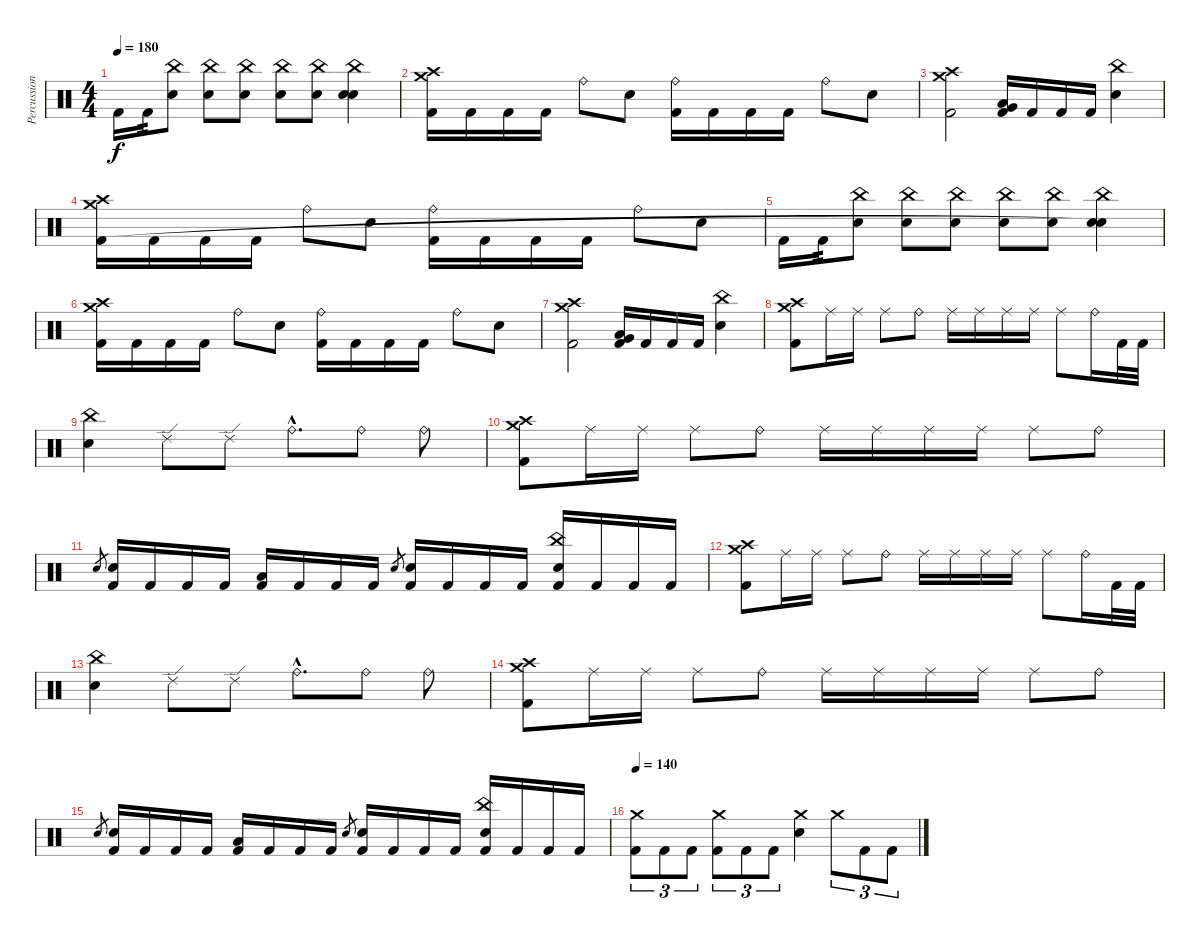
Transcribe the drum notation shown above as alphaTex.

\track ("Percussion" "Percussion") {instrument percussion}
\staff {score}
\articulation defaults
\ts (4 4)
\tempo 180
\clef neutral
\ks c "Kick (hit) 2".16{dy f} "Kick (hit) 2".16{tp 2}
("China (hit)" "Electric Snare (hit)").8 ("China (hit)" "Electric Snare (hit)").8 ("China (hit)" "Electric Snare (hit)").8 ("China (hit)" "Electric Snare (hit)").8 ("China (hit)" "Electric Snare (hit)").8 ("China (hit)" "Electric Snare (hit)" "Snare (hit)"{t}).4 |
("Crash high (hit)" "Crash medium (hit)" "Kick (hit) 2").16 "Kick (hit) 2".16 "Kick (hit) 2".16 "Kick (hit) 2".16 "Ride (bell)".8 "Electric Snare (hit)".8 ("Ride (bell)" "Kick (hit) 2").16 "Kick (hit) 2".16 "Kick (hit) 2".16 "Kick (hit) 2".16 "Ride (bell)".8 "Electric Snare (hit)".8 |
("Crash medium (hit)" "Crash high (hit)" "Kick (hit) 2").2 ("Low Floor Tom (hit)" "Very Low Tom (hit)" "Kick (hit) 2").16 "Kick (hit) 2".16 "Kick (hit) 2".16 "Kick (hit) 2".16 ("China (hit)" "Electric Snare (hit)").4 |
("Crash high (hit)" "Crash medium (hit)" "Kick (hit) 2").16 "Kick (hit) 2".16 "Kick (hit) 2".16 "Kick (hit) 2".16 "Ride (bell)".8 "Electric Snare (hit)".8 ("Ride (bell)" "Kick (hit) 2").16 "Kick (hit) 2".16 "Kick (hit) 2".16 "Kick (hit) 2".16 "Ride (bell)".8 "Electric Snare (hit)".8 |
"Kick (hit) 2".16 "Kick (hit) 2".16{tp 2} ("China (hit)" "Electric Snare (hit)").8 ("China (hit)" "Electric Snare (hit)").8 ("China (hit)" "Electric Snare (hit)").8 ("China (hit)" "Electric Snare (hit)").8 ("China (hit)" "Electric Snare (hit)").8 ("China (hit)" "Electric Snare (hit)" "Snare (hit)"{t}).4 |
("Crash high (hit)" "Crash medium (hit)" "Kick (hit) 2").16 "Kick (hit) 2".16 "Kick (hit) 2".16 "Kick (hit) 2".16 "Ride (bell)".8 "Electric Snare (hit)".8 ("Ride (bell)" "Kick (hit) 2").16 "Kick (hit) 2".16 "Kick (hit) 2".16 "Kick (hit) 2".16 "Ride (bell)".8 "Electric Snare (hit)".8 |
("Crash medium (hit)" "Crash high (hit)" "Kick (hit) 2").2 ("Low Floor Tom (hit)" "Very Low Tom (hit)" "Kick (hit) 2").16 "Kick (hit) 2".16 "Kick (hit) 2".16 "Kick (hit) 2".16 ("China (hit)" "Electric Snare (hit)").4 |
("Crash medium (hit)" "Crash high (hit)" "Kick (hit) 2").8 "Ride (middle)".16 "Ride (middle)".16 "Ride (middle)".8 "Ride (bell)".8 "Ride (middle)".16 "Ride (middle)".16 "Ride (middle)".16 "Ride (middle)".16 "Ride (middle)".8 "Ride (bell)".16 "Kick (hit) 2".32 "Kick (hit) 2".32 |
("China (hit)" "Electric Snare (hit)").4 "Ride (edge) 2".8 "Ride (edge) 2".8 "Ride (bell)"{hac}.8{d} "Ride (bell)".8 "Ride (bell)".8 |
("Crash medium (hit)" "Crash high (hit)" "Kick (hit) 2").8 "Ride (middle)".16 "Ride (middle)".16 "Ride (middle)".8 "Ride (bell)".8 "Ride (middle)".16 "Ride (middle)".16 "Ride (middle)".16 "Ride (middle)".16 "Ride (middle)".8 "Ride (bell)".8 |
"Electric Snare (hit)".8{gr} ("Electric Snare (hit)" "Kick (hit) 2").16 "Kick (hit) 2".16 "Kick (hit) 2".16 "Kick (hit) 2".16 ("Low Tom (hit)" "Kick (hit) 2").16 "Kick (hit) 2".16 "Kick (hit) 2".16 "Kick (hit) 2".16 "Electric Snare (hit)".8{gr} ("Electric Snare (hit)" "Kick (hit) 2").16 "Kick (hit) 2".16 "Kick (hit) 2".16 "Kick (hit) 2".16 ("China (hit)" "Electric Snare (hit)" "Kick (hit) 2").16 "Kick (hit) 2".16 "Kick (hit) 2".16 "Kick (hit) 2".16 |
("Crash medium (hit)" "Crash high (hit)" "Kick (hit) 2").8 "Ride (middle)".16 "Ride (middle)".16 "Ride (middle)".8 "Ride (bell)".8 "Ride (middle)".16 "Ride (middle)".16 "Ride (middle)".16 "Ride (middle)".16 "Ride (middle)".8 "Ride (bell)".16 "Kick (hit) 2".32 "Kick (hit) 2".32 |
("China (hit)" "Electric Snare (hit)").4 "Ride (edge) 2".8 "Ride (edge) 2".8 "Ride (bell)"{hac}.8{d} "Ride (bell)".8 "Ride (bell)".8 |
("Crash medium (hit)" "Crash high (hit)" "Kick (hit) 2").8 "Ride (middle)".16 "Ride (middle)".16 "Ride (middle)".8 "Ride (bell)".8 "Ride (middle)".16 "Ride (middle)".16 "Ride (middle)".16 "Ride (middle)".16 "Ride (middle)".8 "Ride (bell)".8 |
"Electric Snare (hit)".8{gr} ("Electric Snare (hit)" "Kick (hit) 2").16 "Kick (hit) 2".16 "Kick (hit) 2".16 "Kick (hit) 2".16 ("Low Tom (hit)" "Kick (hit) 2").16 "Kick (hit) 2".16 "Kick (hit) 2".16 "Kick (hit) 2".16 "Electric Snare (hit)".8{gr} ("Electric Snare (hit)" "Kick (hit) 2").16 "Kick (hit) 2".16 "Kick (hit) 2".16 "Kick (hit) 2".16 ("China (hit)" "Electric Snare (hit)" "Kick (hit) 2").16 "Kick (hit) 2".16 "Kick (hit) 2".16 "Kick (hit) 2".16 |
\tempo 140
("Crash medium (hit)" "Kick (hit) 2").8{tu (3 2)} "Kick (hit) 2".8{tu (3 2)} "Kick (hit) 2".8{tu (3 2)} ("Crash medium (hit)" "Kick (hit) 2").8{tu (3 2)} "Kick (hit) 2".8{tu (3 2)} "Kick (hit) 2".8{tu (3 2)} ("Crash medium (hit)" "Electric Snare (hit)").4 "Crash medium (hit)".8{tu (3 2)} "Kick (hit) 2".8{tu (3 2)} "Kick (hit) 2".8{tu (3 2)}
